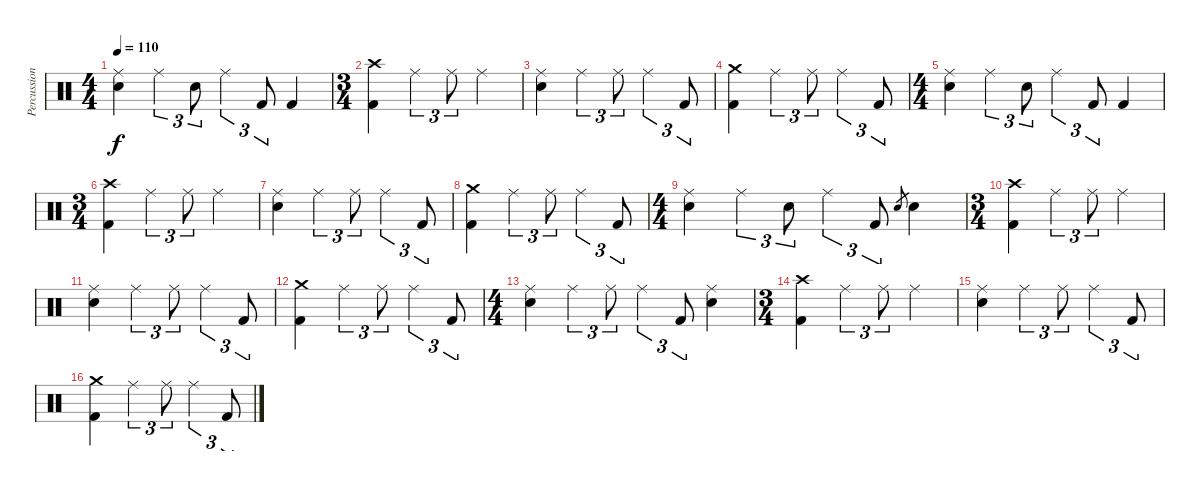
\track ("Percussion" "Percussion") {instrument percussion}
\staff {score}
\articulation defaults
\ts (4 4)
\tempo 110
\clef neutral
\ks c
("Ride (middle)" "Electric Snare (hit)").4{dy f} "Ride (middle)".4{tu (3 2)} "Electric Snare (hit)".8{tu (3 2)} "Ride (middle)".4{tu (3 2)} "Kick (hit) 2".8{tu (3 2)} "Kick (hit) 2".4 |
\ts (3 4)
("Crash high (hit)" "Kick (hit) 2").4 "Ride (middle)".4{tu (3 2)} "Ride (middle)".8{tu (3 2)} "Ride (middle)".4 |
("Ride (middle)" "Electric Snare (hit)").4 "Ride (middle)".4{tu (3 2)} "Ride (middle)".8{tu (3 2)} "Ride (middle)".4{tu (3 2)} "Kick (hit) 2".8{tu (3 2)} |
("Crash medium (hit)" "Kick (hit) 2").4 "Ride (middle)".4{tu (3 2)} "Ride (middle)".8{tu (3 2)} "Ride (middle)".4{tu (3 2)} "Kick (hit) 2".8{tu (3 2)} |
\ts (4 4)
("Ride (middle)" "Electric Snare (hit)").4 "Ride (middle)".4{tu (3 2)} "Electric Snare (hit)".8{tu (3 2)} "Ride (middle)".4{tu (3 2)} "Kick (hit) 2".8{tu (3 2)} "Kick (hit) 2".4 |
\ts (3 4)
("Crash high (hit)" "Kick (hit) 2").4 "Ride (middle)".4{tu (3 2)} "Ride (middle)".8{tu (3 2)} "Ride (middle)".4 |
("Ride (middle)" "Electric Snare (hit)").4 "Ride (middle)".4{tu (3 2)} "Ride (middle)".8{tu (3 2)} "Ride (middle)".4{tu (3 2)} "Kick (hit) 2".8{tu (3 2)} |
("Crash medium (hit)" "Kick (hit) 2").4 "Ride (middle)".4{tu (3 2)} "Ride (middle)".8{tu (3 2)} "Ride (middle)".4{tu (3 2)} "Kick (hit) 2".8{tu (3 2)} |
\ts (4 4)
("Ride (middle)" "Electric Snare (hit)").4 "Ride (middle)".4{tu (3 2)} "Electric Snare (hit)".8{tu (3 2)} "Ride (middle)".4{tu (3 2)} "Kick (hit) 2".8{tu (3 2)} "Electric Snare (hit)".8{gr} "Electric Snare (hit)".4 |
\ts (3 4)
("Crash high (hit)" "Kick (hit) 2").4 "Ride (middle)".4{tu (3 2)} "Ride (middle)".8{tu (3 2)} "Ride (middle)".4 |
("Ride (middle)" "Electric Snare (hit)").4 "Ride (middle)".4{tu (3 2)} "Ride (middle)".8{tu (3 2)} "Ride (middle)".4{tu (3 2)} "Kick (hit) 2".8{tu (3 2)} |
("Crash medium (hit)" "Kick (hit) 2").4 "Ride (middle)".4{tu (3 2)} "Ride (middle)".8{tu (3 2)} "Ride (middle)".4{tu (3 2)} "Kick (hit) 2".8{tu (3 2)} |
\ts (4 4)
("Ride (middle)" "Electric Snare (hit)").4 "Ride (middle)".4{tu (3 2)} "Ride (middle)".8{tu (3 2)} "Ride (middle)".4{tu (3 2)} "Kick (hit) 2".8{tu (3 2)} ("Ride (middle)" "Electric Snare (hit)").4 |
\ts (3 4)
("Crash high (hit)" "Kick (hit) 2").4 "Ride (middle)".4{tu (3 2)} "Ride (middle)".8{tu (3 2)} "Ride (middle)".4 |
("Ride (middle)" "Electric Snare (hit)").4 "Ride (middle)".4{tu (3 2)} "Ride (middle)".8{tu (3 2)} "Ride (middle)".4{tu (3 2)} "Kick (hit) 2".8{tu (3 2)} |
("Crash medium (hit)" "Kick (hit) 2").4 "Ride (middle)".4{tu (3 2)} "Ride (middle)".8{tu (3 2)} "Ride (middle)".4{tu (3 2)} "Kick (hit) 2".8{tu (3 2)}
